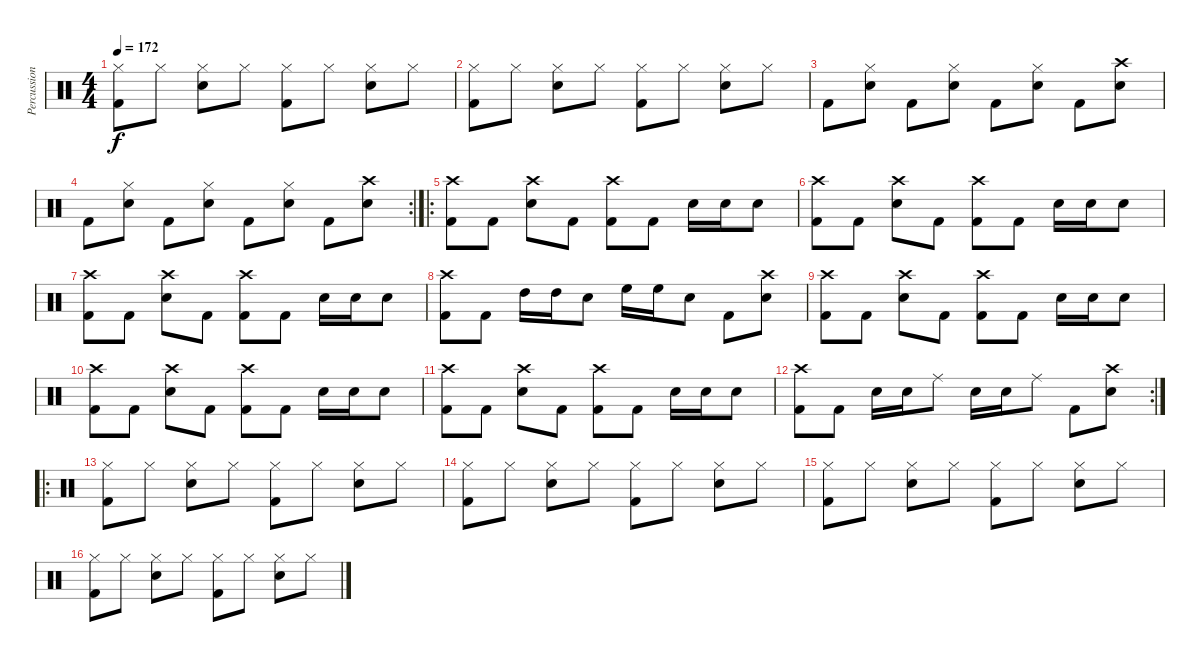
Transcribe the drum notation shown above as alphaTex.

\track ("Percussion" "Percussion") {instrument percussion}
\staff {score}
\articulation defaults
\ts (4 4)
\tempo 172
\clef neutral
\ks c
("Hi-Hat (closed)" "Kick (hit) 2").8{dy f} "Hi-Hat (closed)".8 ("Hi-Hat (closed)" "Snare (hit) 2").8 "Hi-Hat (closed)".8 ("Hi-Hat (closed)" "Kick (hit) 2").8 "Hi-Hat (closed)".8 ("Hi-Hat (closed)" "Snare (hit) 2").8 "Hi-Hat (closed)".8 |
("Hi-Hat (closed)" "Kick (hit) 2").8 "Hi-Hat (closed)".8 ("Hi-Hat (closed)" "Snare (hit) 2").8 "Hi-Hat (closed)".8 ("Hi-Hat (closed)" "Kick (hit) 2").8 "Hi-Hat (closed)".8 ("Hi-Hat (closed)" "Snare (hit) 2").8 "Hi-Hat (closed)".8 |
"Kick (hit) 2".8 ("Hi-Hat (closed)" "Snare (hit) 2").8 "Kick (hit) 2".8 ("Hi-Hat (closed)" "Snare (hit) 2").8 "Kick (hit) 2".8 ("Hi-Hat (closed)" "Snare (hit) 2").8 "Kick (hit) 2".8 ("Crash high (hit)" "Snare (hit) 2").8 |
\rc 2 "Kick (hit) 2".8
("Hi-Hat (closed)" "Snare (hit) 2").8 "Kick (hit) 2".8 ("Hi-Hat (closed)" "Snare (hit) 2").8 "Kick (hit) 2".8 ("Hi-Hat (closed)" "Snare (hit) 2").8 "Kick (hit) 2".8 ("Crash high (hit)" "Snare (hit) 2").8 |
\ro
("Crash high (hit)" "Kick (hit) 2").8 "Kick (hit) 2".8 ("Crash high (hit)" "Snare (hit) 2").8 "Kick (hit) 2".8 ("Crash high (hit)" "Kick (hit) 2").8 "Kick (hit) 2".8 "Snare (hit) 2".16 "Snare (hit) 2".16 "Snare (hit) 2".8 |
("Crash high (hit)" "Kick (hit) 2").8 "Kick (hit) 2".8 ("Crash high (hit)" "Snare (hit) 2").8 "Kick (hit) 2".8 ("Crash high (hit)" "Kick (hit) 2").8 "Kick (hit) 2".8 "Snare (hit) 2".16 "Snare (hit) 2".16 "Snare (hit) 2".8 |
("Crash high (hit)" "Kick (hit) 2").8 "Kick (hit) 2".8 ("Crash high (hit)" "Snare (hit) 2").8 "Kick (hit) 2".8 ("Crash high (hit)" "Kick (hit) 2").8 "Kick (hit) 2".8 "Snare (hit) 2".16 "Snare (hit) 2".16 "Snare (hit) 2".8 |
("Crash high (hit)" "Kick (hit) 2").8 "Kick (hit) 2".8 "High Tom (hit)".16 "High Tom (hit)".16 "Snare (hit) 2".8 "High Floor Tom (hit)".16 "High Floor Tom (hit)".16 "Snare (hit) 2".8 "Kick (hit) 2".8 ("Crash high (hit)" "Snare (hit) 2").8 |
("Crash high (hit)" "Kick (hit) 2").8 "Kick (hit) 2".8 ("Crash high (hit)" "Snare (hit) 2").8 "Kick (hit) 2".8 ("Crash high (hit)" "Kick (hit) 2").8 "Kick (hit) 2".8 "Snare (hit) 2".16 "Snare (hit) 2".16 "Snare (hit) 2".8 |
("Crash high (hit)" "Kick (hit) 2").8 "Kick (hit) 2".8 ("Crash high (hit)" "Snare (hit) 2").8 "Kick (hit) 2".8 ("Crash high (hit)" "Kick (hit) 2").8 "Kick (hit) 2".8 "Snare (hit) 2".16 "Snare (hit) 2".16 "Snare (hit) 2".8 |
("Crash high (hit)" "Kick (hit) 2").8 "Kick (hit) 2".8 ("Crash high (hit)" "Snare (hit) 2").8 "Kick (hit) 2".8 ("Crash high (hit)" "Kick (hit) 2").8 "Kick (hit) 2".8 "Snare (hit) 2".16 "Snare (hit) 2".16 "Snare (hit) 2".8 |
\rc 2
("Crash high (hit)" "Kick (hit) 2").8 "Kick (hit) 2".8 "Snare (hit) 2".16 "Snare (hit) 2".16 "Ride (middle)".8 "Snare (hit) 2".16 "Snare (hit) 2".16 "Ride (middle)".8 "Kick (hit) 2".8 ("Crash high (hit)" "Snare (hit) 2").8 |
\ro
("Hi-Hat (closed)" "Kick (hit) 2").8 "Hi-Hat (closed)".8 ("Hi-Hat (closed)" "Snare (hit) 2").8 "Hi-Hat (closed)".8 ("Hi-Hat (closed)" "Kick (hit) 2").8 "Hi-Hat (closed)".8 ("Hi-Hat (closed)" "Snare (hit) 2").8 "Hi-Hat (closed)".8 |
("Hi-Hat (closed)" "Kick (hit) 2").8 "Hi-Hat (closed)".8 ("Hi-Hat (closed)" "Snare (hit) 2").8 "Hi-Hat (closed)".8 ("Hi-Hat (closed)" "Kick (hit) 2").8 "Hi-Hat (closed)".8 ("Hi-Hat (closed)" "Snare (hit) 2").8 "Hi-Hat (closed)".8 |
("Hi-Hat (closed)" "Kick (hit) 2").8 "Hi-Hat (closed)".8 ("Hi-Hat (closed)" "Snare (hit) 2").8 "Hi-Hat (closed)".8 ("Hi-Hat (closed)" "Kick (hit) 2").8 "Hi-Hat (closed)".8 ("Hi-Hat (closed)" "Snare (hit) 2").8 "Hi-Hat (closed)".8 |
("Hi-Hat (closed)" "Kick (hit) 2").8 "Hi-Hat (closed)".8 ("Hi-Hat (closed)" "Snare (hit) 2").8 "Hi-Hat (closed)".8 ("Hi-Hat (closed)" "Kick (hit) 2").8 "Hi-Hat (closed)".8 ("Hi-Hat (closed)" "Snare (hit) 2").8 "Hi-Hat (closed)".8
